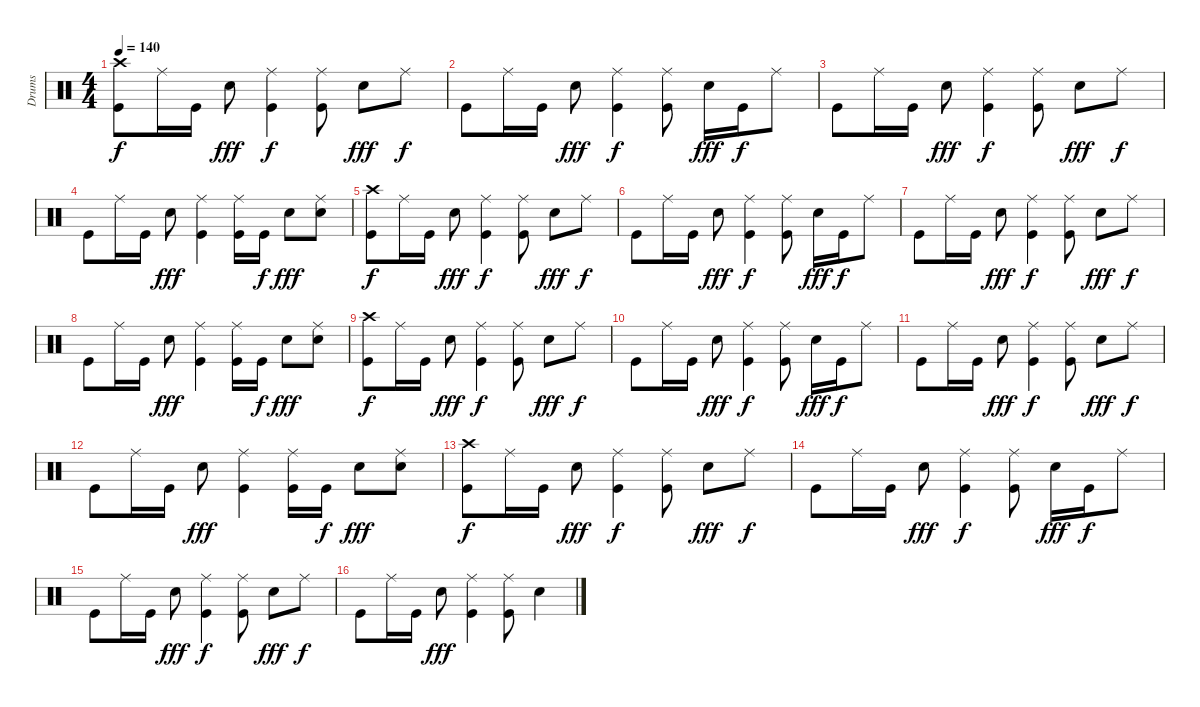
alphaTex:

\track ("Drums" "Drums") {instrument percussion}
\staff {score}
\articulation defaults
\ts (4 4)
\tempo 140
\clef neutral
\ks c
("Crash high (hit)" "Kick (hit)").8{dy f} "Ride (middle)".16 "Kick (hit)".16 "Electric Snare (hit)".8{dy fff} ("Ride (middle)" "Kick (hit)").4{dy f} ("Ride (middle)" "Kick (hit)").8 "Electric Snare (hit)".8{dy fff} "Ride (middle)".8{dy f} |
"Kick (hit)".8 "Ride (middle)".16 "Kick (hit)".16 "Electric Snare (hit)".8{dy fff} ("Ride (middle)" "Kick (hit)").4{dy f} ("Ride (middle)" "Kick (hit)").8 "Electric Snare (hit)".16{dy fff} "Kick (hit)".16{dy f} "Ride (middle)".8 |
"Kick (hit)".8 "Ride (middle)".16 "Kick (hit)".16 "Electric Snare (hit)".8{dy fff} ("Ride (middle)" "Kick (hit)").4{dy f} ("Ride (middle)" "Kick (hit)").8 "Electric Snare (hit)".8{dy fff} "Ride (middle)".8{dy f} |
"Kick (hit)".8 "Ride (middle)".16 "Kick (hit)".16 "Electric Snare (hit)".8{dy fff} ("Ride (middle)" "Kick (hit)").4 ("Ride (middle)" "Kick (hit)").16 "Kick (hit)".16{dy f} "Electric Snare (hit)".8{dy fff} ("Electric Snare (hit)" "Ride (middle)").8 |
("Crash high (hit)" "Kick (hit)").8{dy f} "Ride (middle)".16 "Kick (hit)".16 "Electric Snare (hit)".8{dy fff} ("Ride (middle)" "Kick (hit)").4{dy f} ("Ride (middle)" "Kick (hit)").8 "Electric Snare (hit)".8{dy fff} "Ride (middle)".8{dy f} |
"Kick (hit)".8 "Ride (middle)".16 "Kick (hit)".16 "Electric Snare (hit)".8{dy fff} ("Ride (middle)" "Kick (hit)").4{dy f} ("Ride (middle)" "Kick (hit)").8 "Electric Snare (hit)".16{dy fff} "Kick (hit)".16{dy f} "Ride (middle)".8 |
"Kick (hit)".8 "Ride (middle)".16 "Kick (hit)".16 "Electric Snare (hit)".8{dy fff} ("Ride (middle)" "Kick (hit)").4{dy f} ("Ride (middle)" "Kick (hit)").8 "Electric Snare (hit)".8{dy fff} "Ride (middle)".8{dy f} |
"Kick (hit)".8 "Ride (middle)".16 "Kick (hit)".16 "Electric Snare (hit)".8{dy fff} ("Ride (middle)" "Kick (hit)").4 ("Ride (middle)" "Kick (hit)").16 "Kick (hit)".16{dy f} "Electric Snare (hit)".8{dy fff} ("Electric Snare (hit)" "Ride (middle)").8 |
("Crash high (hit)" "Kick (hit)").8{dy f} "Ride (middle)".16 "Kick (hit)".16 "Electric Snare (hit)".8{dy fff} ("Ride (middle)" "Kick (hit)").4{dy f} ("Ride (middle)" "Kick (hit)").8 "Electric Snare (hit)".8{dy fff} "Ride (middle)".8{dy f} |
"Kick (hit)".8 "Ride (middle)".16 "Kick (hit)".16 "Electric Snare (hit)".8{dy fff} ("Ride (middle)" "Kick (hit)").4{dy f} ("Ride (middle)" "Kick (hit)").8 "Electric Snare (hit)".16{dy fff} "Kick (hit)".16{dy f} "Ride (middle)".8 |
"Kick (hit)".8 "Ride (middle)".16 "Kick (hit)".16 "Electric Snare (hit)".8{dy fff} ("Ride (middle)" "Kick (hit)").4{dy f} ("Ride (middle)" "Kick (hit)").8 "Electric Snare (hit)".8{dy fff} "Ride (middle)".8{dy f} |
"Kick (hit)".8 "Ride (middle)".16 "Kick (hit)".16 "Electric Snare (hit)".8{dy fff} ("Ride (middle)" "Kick (hit)").4 ("Ride (middle)" "Kick (hit)").16 "Kick (hit)".16{dy f} "Electric Snare (hit)".8{dy fff} ("Electric Snare (hit)" "Ride (middle)").8 |
("Crash high (hit)" "Kick (hit)").8{dy f} "Ride (middle)".16 "Kick (hit)".16 "Electric Snare (hit)".8{dy fff} ("Ride (middle)" "Kick (hit)").4{dy f} ("Ride (middle)" "Kick (hit)").8 "Electric Snare (hit)".8{dy fff} "Ride (middle)".8{dy f} |
"Kick (hit)".8 "Ride (middle)".16 "Kick (hit)".16 "Electric Snare (hit)".8{dy fff} ("Ride (middle)" "Kick (hit)").4{dy f} ("Ride (middle)" "Kick (hit)").8 "Electric Snare (hit)".16{dy fff} "Kick (hit)".16{dy f} "Ride (middle)".8 |
"Kick (hit)".8 "Ride (middle)".16 "Kick (hit)".16 "Electric Snare (hit)".8{dy fff} ("Ride (middle)" "Kick (hit)").4{dy f} ("Ride (middle)" "Kick (hit)").8 "Electric Snare (hit)".8{dy fff} "Ride (middle)".8{dy f} |
"Kick (hit)".8 "Ride (middle)".16 "Kick (hit)".16 "Electric Snare (hit)".8{dy fff} ("Ride (middle)" "Kick (hit)").4 ("Ride (middle)" "Kick (hit)").8 "Electric Snare (hit)".4
